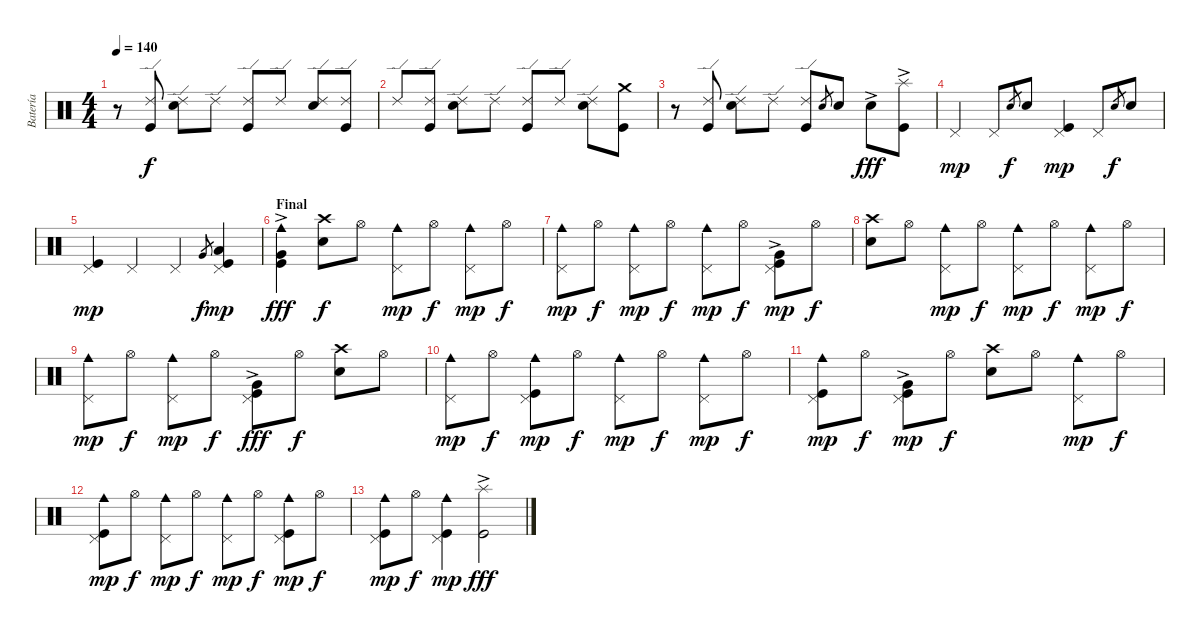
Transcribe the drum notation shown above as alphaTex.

\track ("Batería" "Batería") {instrument percussion}
\staff {score}
\articulation defaults
\ts (4 4)
\tempo 140
\clef neutral
\ks c
r.8{dy f} ("Kick (hit)" "Ride (edge) 2").8 ("Electric Snare (hit)" "Ride (edge) 2").8 "Ride (edge) 2".8 ("Kick (hit)" "Ride (edge) 2").8 "Ride (edge) 2".8 ("Electric Snare (hit)" "Ride (edge) 2").8 ("Kick (hit)" "Ride (edge) 2").8 |
"Ride (edge) 2".8 ("Kick (hit)" "Ride (edge) 2").8 ("Electric Snare (hit)" "Ride (edge) 2").8 "Ride (edge) 2".8 ("Kick (hit)" "Ride (edge) 2").8 "Ride (edge) 2".8 ("Electric Snare (hit)" "Ride (edge) 2").8 ("Kick (hit)" "Crash medium (hit)").8 |
r.8 ("Kick (hit)" "Ride (edge) 2").8 ("Electric Snare (hit)" "Ride (edge) 2").8 "Ride (edge) 2".8 ("Kick (hit)" "Ride (edge) 2").8 "Electric Snare (hit)".8{gr} "Electric Snare (hit)".8 "Electric Snare (hit)"{ac}.8{dy fff} ("Kick (hit)" "Splash (hit)"{ac}).8 |
"Pedal Hi-Hat (hit)".4{dy mp} "Pedal Hi-Hat (hit)".8 "Electric Snare (hit)".8{gr dy f} "Electric Snare (hit)".8 ("Kick (hit)" "Pedal Hi-Hat (hit)").4{dy mp} "Pedal Hi-Hat (hit)".8 "Electric Snare (hit)".8{gr dy f} "Electric Snare (hit)".8 |
("Kick (hit)" "Pedal Hi-Hat (hit)").4{dy mp} "Pedal Hi-Hat (hit)".4 "Pedal Hi-Hat (hit)".4 "Very Low Tom (hit)".8{gr dy f} ("Kick (hit)" "Low Floor Tom (hit)" "Pedal Hi-Hat (hit)").4{dy mp} |
\section ("" "Final")
("Kick (hit)" "Very Low Tom (hit)"{ac} "Cowbell medium (hit)").4{dy fff} ("Electric Snare (hit)" "Crash high (hit)").8{dy f} "Hi-Hat (open)".8 ("Pedal Hi-Hat (hit)" "Cowbell medium (hit)").8{dy mp} "Hi-Hat (open)".8{dy f} ("Pedal Hi-Hat (hit)" "Cowbell medium (hit)").8{dy mp} "Hi-Hat (open)".8{dy f} |
("Pedal Hi-Hat (hit)" "Cowbell medium (hit)").8{dy mp} "Hi-Hat (open)".8{dy f} ("Pedal Hi-Hat (hit)" "Cowbell medium (hit)").8{dy mp} "Hi-Hat (open)".8{dy f} ("Pedal Hi-Hat (hit)" "Cowbell medium (hit)").8{dy mp} "Hi-Hat (open)".8{dy f} ("Kick (hit)" "Very Low Tom (hit)"{ac} "Pedal Hi-Hat (hit)").8{dy mp} "Hi-Hat (open)".8{dy f} |
("Electric Snare (hit)" "Crash high (hit)").8 "Hi-Hat (open)".8 ("Pedal Hi-Hat (hit)" "Cowbell medium (hit)").8{dy mp} "Hi-Hat (open)".8{dy f} ("Pedal Hi-Hat (hit)" "Cowbell medium (hit)").8{dy mp} "Hi-Hat (open)".8{dy f} ("Pedal Hi-Hat (hit)" "Cowbell medium (hit)").8{dy mp} "Hi-Hat (open)".8{dy f} |
("Pedal Hi-Hat (hit)" "Cowbell medium (hit)").8{dy mp} "Hi-Hat (open)".8{dy f} ("Pedal Hi-Hat (hit)" "Cowbell medium (hit)").8{dy mp} "Hi-Hat (open)".8{dy f} ("Kick (hit)" "Very Low Tom (hit)"{ac} "Pedal Hi-Hat (hit)").8{dy fff} "Hi-Hat (open)".8{dy f} ("Electric Snare (hit)" "Crash high (hit)").8 "Hi-Hat (open)".8 |
("Pedal Hi-Hat (hit)" "Cowbell medium (hit)").8{dy mp} "Hi-Hat (open)".8{dy f} ("Kick (hit)" "Pedal Hi-Hat (hit)" "Cowbell medium (hit)").8{dy mp} "Hi-Hat (open)".8{dy f} ("Pedal Hi-Hat (hit)" "Cowbell medium (hit)").8{dy mp} "Hi-Hat (open)".8{dy f} ("Pedal Hi-Hat (hit)" "Cowbell medium (hit)").8{dy mp} "Hi-Hat (open)".8{dy f} |
("Kick (hit)" "Pedal Hi-Hat (hit)" "Cowbell medium (hit)").8{dy mp} "Hi-Hat (open)".8{dy f} ("Kick (hit)" "Very Low Tom (hit)"{ac} "Pedal Hi-Hat (hit)").8{dy mp} "Hi-Hat (open)".8{dy f} ("Electric Snare (hit)" "Crash high (hit)").8 "Hi-Hat (open)".8 ("Pedal Hi-Hat (hit)" "Cowbell medium (hit)").8{dy mp} "Hi-Hat (open)".8{dy f} |
("Kick (hit)" "Pedal Hi-Hat (hit)" "Cowbell medium (hit)").8{dy mp} "Hi-Hat (open)".8{dy f} ("Pedal Hi-Hat (hit)" "Cowbell medium (hit)").8{dy mp} "Hi-Hat (open)".8{dy f} ("Pedal Hi-Hat (hit)" "Cowbell medium (hit)").8{dy mp} "Hi-Hat (open)".8{dy f} ("Kick (hit)" "Pedal Hi-Hat (hit)" "Cowbell medium (hit)").8{dy mp} "Hi-Hat (open)".8{dy f} |
("Kick (hit)" "Pedal Hi-Hat (hit)" "Cowbell medium (hit)").8{dy mp} "Hi-Hat (open)".8{dy f} ("Kick (hit)" "Pedal Hi-Hat (hit)" "Cowbell medium (hit)").4{dy mp} ("Kick (hit)" "Splash (hit)"{ac}).2{dy fff}
